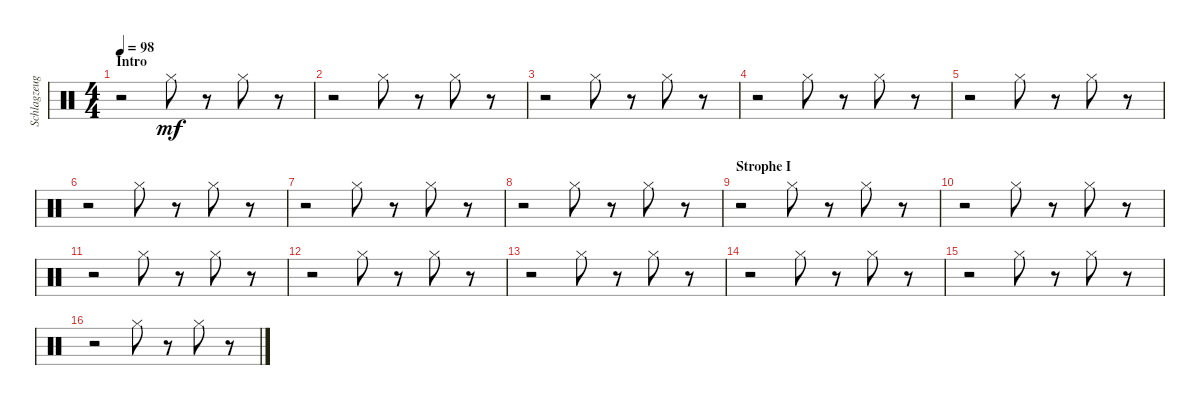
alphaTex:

\track ("Schlagzeug" "Schlagzeug") {instrument percussion}
\staff {score}
\articulation defaults
\ts (4 4)
\section ("" "Intro")
\tempo 98
\clef neutral
\ks c
r.2{dy mf} "Hi-Hat (closed)".8 r.8 "Hi-Hat (closed)".8 r.8 |
r.2 "Hi-Hat (closed)".8 r.8 "Hi-Hat (closed)".8 r.8 |
r.2 "Hi-Hat (closed)".8 r.8 "Hi-Hat (closed)".8 r.8 |
r.2 "Hi-Hat (closed)".8 r.8 "Hi-Hat (closed)".8 r.8 |
r.2 "Hi-Hat (closed)".8 r.8 "Hi-Hat (closed)".8 r.8 |
r.2 "Hi-Hat (closed)".8 r.8 "Hi-Hat (closed)".8 r.8 |
r.2 "Hi-Hat (closed)".8 r.8 "Hi-Hat (closed)".8 r.8 |
r.2 "Hi-Hat (closed)".8 r.8 "Hi-Hat (closed)".8 r.8 |
\section ("" "Strophe I")
r.2 "Hi-Hat (closed)".8 r.8 "Hi-Hat (closed)".8 r.8 |
r.2 "Hi-Hat (closed)".8 r.8 "Hi-Hat (closed)".8 r.8 |
r.2 "Hi-Hat (closed)".8 r.8 "Hi-Hat (closed)".8 r.8 |
r.2 "Hi-Hat (closed)".8 r.8 "Hi-Hat (closed)".8 r.8 |
r.2 "Hi-Hat (closed)".8 r.8 "Hi-Hat (closed)".8 r.8 |
r.2 "Hi-Hat (closed)".8 r.8 "Hi-Hat (closed)".8 r.8 |
r.2 "Hi-Hat (closed)".8 r.8 "Hi-Hat (closed)".8 r.8 |
r.2 "Hi-Hat (closed)".8 r.8 "Hi-Hat (closed)".8 r.8
